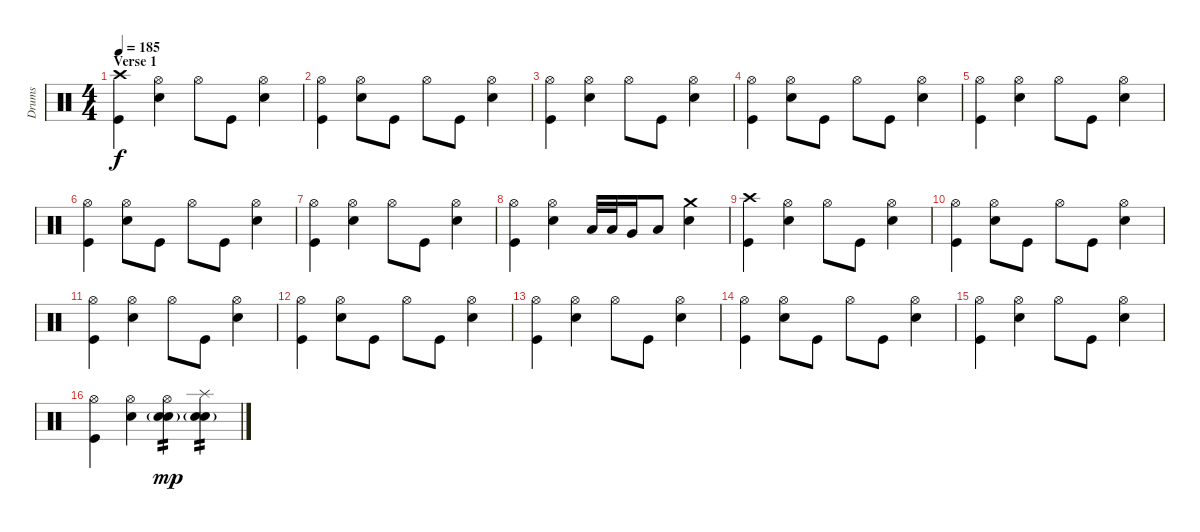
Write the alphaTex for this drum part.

\track ("Drums" "Drums") {instrument percussion}
\staff {score}
\articulation defaults
\ts (4 4)
\section ("" "Verse 1")
\tempo 185
\clef neutral
\ks c
("Crash high (hit)" "Kick (hit)").4{dy f} ("Hi-Hat (open)" "Snare (hit) 2").4 "Hi-Hat (open)".8 "Kick (hit)".8 ("Hi-Hat (open)" "Snare (hit) 2").4 |
("Hi-Hat (open)" "Kick (hit)").4 ("Hi-Hat (open)" "Snare (hit) 2").8 "Kick (hit)".8 "Hi-Hat (open)".8 "Kick (hit)".8 ("Hi-Hat (open)" "Snare (hit) 2").4 |
("Hi-Hat (open)" "Kick (hit)").4 ("Hi-Hat (open)" "Snare (hit) 2").4 "Hi-Hat (open)".8 "Kick (hit)".8 ("Hi-Hat (open)" "Snare (hit) 2").4 |
("Hi-Hat (open)" "Kick (hit)").4 ("Hi-Hat (open)" "Snare (hit) 2").8 "Kick (hit)".8 "Hi-Hat (open)".8 "Kick (hit)".8 ("Hi-Hat (open)" "Snare (hit) 2").4 |
("Hi-Hat (open)" "Kick (hit)").4 ("Hi-Hat (open)" "Snare (hit) 2").4 "Hi-Hat (open)".8 "Kick (hit)".8 ("Hi-Hat (open)" "Snare (hit) 2").4 |
("Hi-Hat (open)" "Kick (hit)").4 ("Hi-Hat (open)" "Snare (hit) 2").8 "Kick (hit)".8 "Hi-Hat (open)".8 "Kick (hit)".8 ("Hi-Hat (open)" "Snare (hit) 2").4 |
("Hi-Hat (open)" "Kick (hit)").4 ("Hi-Hat (open)" "Snare (hit) 2").4 "Hi-Hat (open)".8 "Kick (hit)".8 ("Hi-Hat (open)" "Snare (hit) 2").4 |
("Hi-Hat (open)" "Kick (hit)").4 ("Hi-Hat (open)" "Snare (hit) 2").4 "Low Tom (hit)".32 "Low Tom (hit)".32 "Very Low Tom (hit)".16 "Low Floor Tom (hit)".8 ("Crash medium (hit)" "Snare (hit) 2").4 |
("Crash high (hit)" "Kick (hit)").4 ("Hi-Hat (open)" "Snare (hit) 2").4 "Hi-Hat (open)".8 "Kick (hit)".8 ("Hi-Hat (open)" "Snare (hit) 2").4 |
("Hi-Hat (open)" "Kick (hit)").4 ("Hi-Hat (open)" "Snare (hit) 2").8 "Kick (hit)".8 "Hi-Hat (open)".8 "Kick (hit)".8 ("Hi-Hat (open)" "Snare (hit) 2").4 |
("Hi-Hat (open)" "Kick (hit)").4 ("Hi-Hat (open)" "Snare (hit) 2").4 "Hi-Hat (open)".8 "Kick (hit)".8 ("Hi-Hat (open)" "Snare (hit) 2").4 |
("Hi-Hat (open)" "Kick (hit)").4 ("Hi-Hat (open)" "Snare (hit) 2").8 "Kick (hit)".8 "Hi-Hat (open)".8 "Kick (hit)".8 ("Hi-Hat (open)" "Snare (hit) 2").4 |
("Hi-Hat (open)" "Kick (hit)").4 ("Hi-Hat (open)" "Snare (hit) 2").4 "Hi-Hat (open)".8 "Kick (hit)".8 ("Hi-Hat (open)" "Snare (hit) 2").4 |
("Hi-Hat (open)" "Kick (hit)").4 ("Hi-Hat (open)" "Snare (hit) 2").8 "Kick (hit)".8 "Hi-Hat (open)".8 "Kick (hit)".8 ("Hi-Hat (open)" "Snare (hit) 2").4 |
("Hi-Hat (open)" "Kick (hit)").4 ("Hi-Hat (open)" "Snare (hit) 2").4 "Hi-Hat (open)".8 "Kick (hit)".8 ("Hi-Hat (open)" "Snare (hit) 2").4 |
("Hi-Hat (open)" "Kick (hit)").4 ("Hi-Hat (open)" "Snare (hit) 2").4 ("Hi-Hat (open)" "Snare (hit) 2" "Snare (hit) 2"{g}).4{tp 2 dy mp} ("Splash (hit)" "Snare (hit) 2" "Snare (hit) 2"{g}).4{tp 2}
